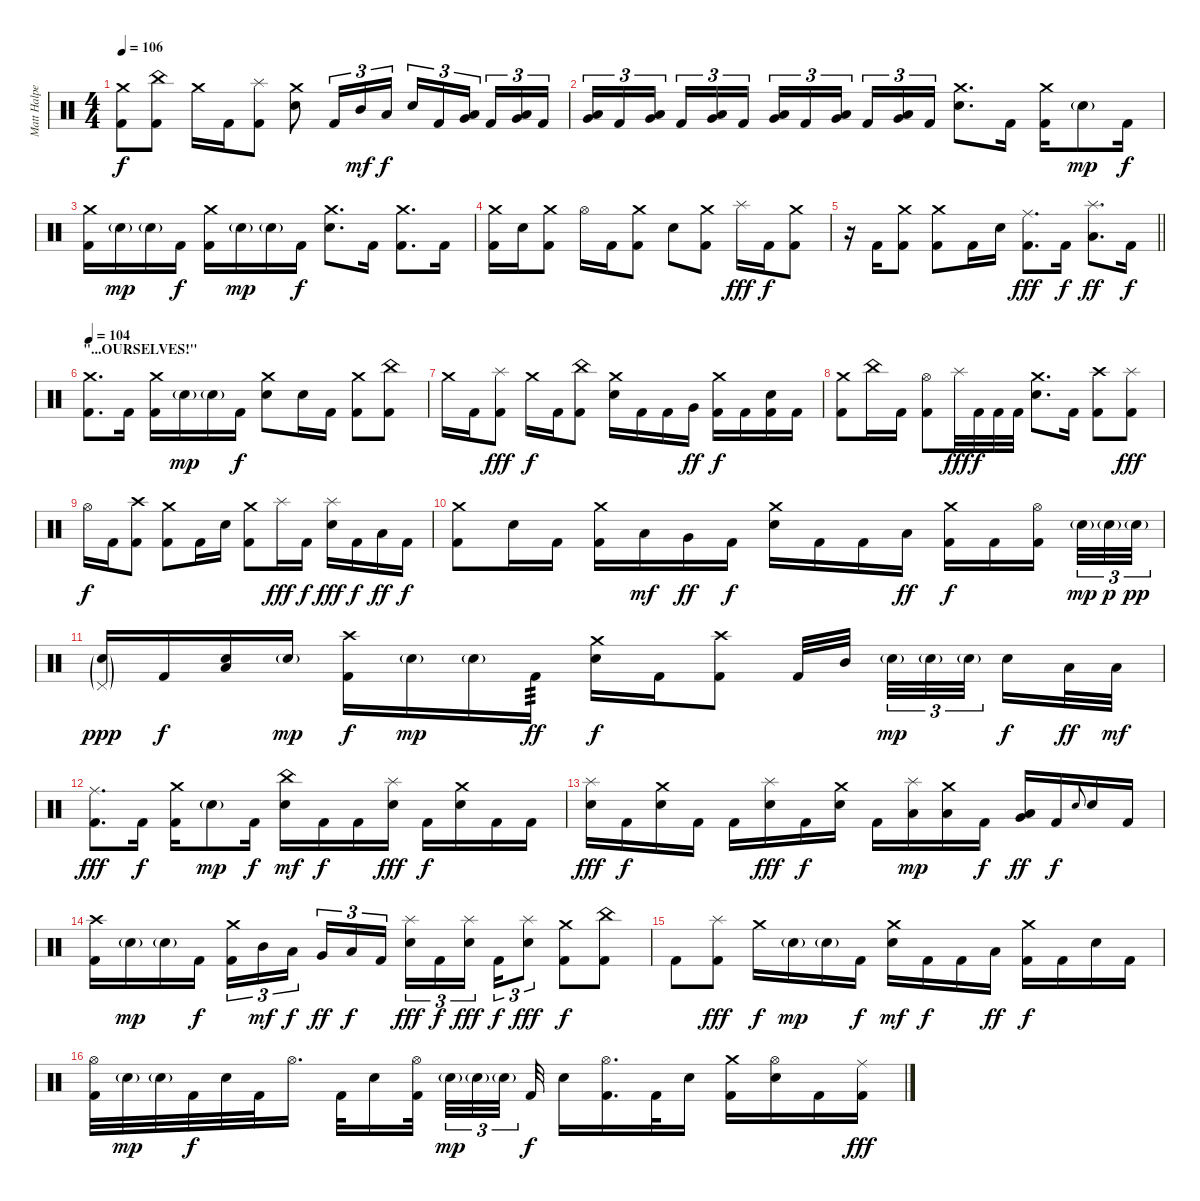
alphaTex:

\track ("Matt Halpern - Drums" "Matt Halpe") {instrument percussion}
\staff {score}
\articulation defaults
\ts (4 4)
\tempo 106
\clef neutral
\ks c
("Crash medium (hit)" "Kick (hit) 2").8{dy f} ("China (hit)" "Kick (hit) 2").8 "Crash medium (hit)".16 "Kick (hit) 2".16 ("Splash (hit)" "Kick (hit) 2").8 ("Crash medium (hit)" "Electric Snare (hit)").8 "Kick (hit) 2".16{tu (3 2)} "Mid Tom (hit)".16{tu (3 2) dy mf} "Low Tom (hit)".16{tu (3 2) dy f} "Electric Snare (hit)".16{tu (3 2)} "Kick (hit) 2".16{tu (3 2)} ("Low Tom (hit)" "Very Low Tom (hit)").16{tu (3 2) beam splitsecondary} "Kick (hit) 2".16{tu (3 2)} ("Low Tom (hit)" "Very Low Tom (hit)").16{tu (3 2)} "Kick (hit) 2".16{tu (3 2)} |
("Low Tom (hit)" "Very Low Tom (hit)").16{tu (3 2)} "Kick (hit) 2".16{tu (3 2)} ("Low Tom (hit)" "Very Low Tom (hit)").16{tu (3 2) beam splitsecondary} "Kick (hit) 2".16{tu (3 2)} ("Low Tom (hit)" "Very Low Tom (hit)").16{tu (3 2)} "Kick (hit) 2".16{tu (3 2)} ("Low Tom (hit)" "Very Low Tom (hit)").16{tu (3 2)} "Kick (hit) 2".16{tu (3 2)} ("Low Tom (hit)" "Very Low Tom (hit)").16{tu (3 2) beam splitsecondary} "Kick (hit) 2".16{tu (3 2)} ("Low Tom (hit)" "Very Low Tom (hit)").16{tu (3 2)} "Kick (hit) 2".16{tu (3 2)} ("Crash medium (hit)" "Electric Snare (hit)").8{d} "Kick (hit) 2".16 ("Crash medium (hit)" "Kick (hit) 2").16 "Electric Snare (hit)"{g}.8{dy mp} "Kick (hit) 2".16{dy f} |
("Crash medium (hit)" "Kick (hit) 2").16 "Electric Snare (hit)"{g}.16{dy mp} "Electric Snare (hit)"{g}.16 "Kick (hit) 2".16{dy f} ("Crash medium (hit)" "Kick (hit) 2").16 "Electric Snare (hit)"{g}.16{dy mp} "Electric Snare (hit)"{g}.16 "Kick (hit) 2".16{dy f} ("Crash medium (hit)" "Electric Snare (hit)").8{d} "Kick (hit) 2".16 ("Crash medium (hit)" "Kick (hit) 2").8{d} "Kick (hit) 2".16 |
("Crash medium (hit)" "Kick (hit) 2").16 "Electric Snare (hit)".16 ("Crash medium (hit)" "Kick (hit) 2").8 "Hi-Hat (open)".16 "Kick (hit) 2".16 ("Crash medium (hit)" "Kick (hit) 2").8 "Electric Snare (hit)".8 ("Crash medium (hit)" "Kick (hit) 2").8 "Splash (hit)".16{dy fff} "Kick (hit) 2".16{dy f} ("Crash medium (hit)" "Kick (hit) 2").8 |
\barLineRight lightlight
r.16 "Kick (hit) 2".16 ("Crash medium (hit)" "Kick (hit) 2").8 ("Crash medium (hit)" "Kick (hit) 2").8 "Kick (hit) 2".16 "Electric Snare (hit)".16 ("Ride (middle)" "Kick (hit) 2").8{d dy fff} "Kick (hit) 2".16{dy f} ("Splash (hit)" "Low Tom (hit)").8{d dy ff} "Kick (hit) 2".16{dy f} |
\section ("" "\"...OURSELVES!\"")
\tempo 104
("Crash medium (hit)" "Kick (hit) 2").8{d} "Kick (hit) 2".16 ("Crash medium (hit)" "Kick (hit) 2").16 "Electric Snare (hit)"{g}.16{dy mp} "Electric Snare (hit)"{g}.16 "Kick (hit) 2".16{dy f} ("Crash medium (hit)" "Electric Snare (hit)").8 "Electric Snare (hit)".16 "Kick (hit) 2".16 ("Crash medium (hit)" "Kick (hit) 2").8 ("China (hit)" "Kick (hit) 2").8 |
"Crash medium (hit)".16 "Kick (hit) 2".16 ("Splash (hit)" "Kick (hit) 2").8{dy fff} "Crash medium (hit)".16{dy f} "Kick (hit) 2".16 ("China (hit)" "Kick (hit) 2").8 ("Crash medium (hit)" "Electric Snare (hit)").16 "Kick (hit) 2".16 "Kick (hit) 2".16 "Very Low Tom (hit)".16{dy ff} ("Crash medium (hit)" "Kick (hit) 2").16{dy f} "Kick (hit) 2".16 ("Electric Snare (hit)" "Kick (hit) 2").16{bd 480} "Kick (hit) 2".16 |
("Crash medium (hit)" "Kick (hit) 2").8 "China (hit)".16 "Kick (hit) 2".16 ("Hi-Hat (open)" "Kick (hit) 2").8 "Splash (hit)".32{dy fff} "Kick (hit) 2".32{dy f} "Kick (hit) 2".32 "Kick (hit) 2".32 ("Crash medium (hit)" "Electric Snare (hit)").8{d} "Kick (hit) 2".16 ("Crash high (hit)" "Kick (hit) 2").8 ("Splash (hit)" "Kick (hit) 2").8{dy fff} |
"Hi-Hat (open)".16{dy f} "Kick (hit) 2".16 ("Crash high (hit)" "Kick (hit) 2").8 ("Crash medium (hit)" "Kick (hit) 2").8 "Kick (hit) 2".16 "Electric Snare (hit)".16 ("Crash medium (hit)" "Kick (hit) 2").8 "Splash (hit)".16{dy fff} "Kick (hit) 2".16{dy f} ("Splash (hit)" "Electric Snare (hit)").16{dy fff} "Kick (hit) 2".16{dy f} "Low Floor Tom (hit)".16{dy ff} "Kick (hit) 2".16{dy f} |
("Crash medium (hit)" "Kick (hit) 2").8 "Electric Snare (hit)".16 "Kick (hit) 2".16 ("Crash medium (hit)" "Kick (hit) 2").16 "Low Tom (hit)".16{dy mf} "Very Low Tom (hit)".16{dy ff} "Kick (hit) 2".16{dy f} ("Crash medium (hit)" "Electric Snare (hit)").16 "Kick (hit) 2".16 "Kick (hit) 2".16 "Low Floor Tom (hit)".16{dy ff} ("Crash medium (hit)" "Kick (hit) 2").16{dy f} "Kick (hit) 2".16 ("Hi-Hat (open)" "Kick (hit) 2").16{beam splitsecondary} "Electric Snare (hit)"{g}.32{tu (3 2) dy mp} "Electric Snare (hit)"{g}.32{tu (3 2) dy p} "Electric Snare (hit)"{g}.32{tu (3 2) dy pp} |
("Electric Snare (hit)"{g} "Pedal Hi-Hat (hit)"{g}).16{dy ppp} "Kick (hit) 2".16{dy f} ("Electric Snare (hit)" "Low Floor Tom (hit)").16 "Electric Snare (hit)"{g}.16{dy mp} ("Crash high (hit)" "Kick (hit) 2").16{dy f} "Electric Snare (hit)"{g}.16{dy mp} "Electric Snare (hit)"{g}.16 "Kick (hit) 2".16{tp 3 dy ff} ("Crash medium (hit)" "Electric Snare (hit)").16{dy f} "Kick (hit) 2".16 ("Crash high (hit)" "Kick (hit) 2").8 "Kick (hit) 2".32 "Mid Tom (hit)".32{beam splitsecondary} "Electric Snare (hit)"{g}.32{tu (3 2) dy mp} "Electric Snare (hit)"{g}.32{tu (3 2)} "Electric Snare (hit)"{g}.32{tu (3 2) beam splitsecondary} "Electric Snare (hit)".16{dy f} "Low Floor Tom (hit)".32{dy ff} "Low Floor Tom (hit)".32{dy mf} |
("Ride (middle)" "Kick (hit) 2").8{d dy fff} "Kick (hit) 2".16{dy f} ("Crash medium (hit)" "Kick (hit) 2").16 "Electric Snare (hit)"{g}.8{dy mp} "Kick (hit) 2".16{dy f} ("China (hit)" "Electric Snare (hit)").16{dy mf} "Kick (hit) 2".16{dy f} "Kick (hit) 2".16 ("Splash (hit)" "Electric Snare (hit)").16{dy fff} "Kick (hit) 2".16{dy f} ("Crash medium (hit)" "Electric Snare (hit)").16 "Kick (hit) 2".16 "Kick (hit) 2".16 |
("Splash (hit)" "Electric Snare (hit)").16{dy fff} "Kick (hit) 2".16{dy f} ("Crash medium (hit)" "Electric Snare (hit)").16 "Kick (hit) 2".16 "Kick (hit) 2".16 ("Splash (hit)" "Electric Snare (hit)").16{dy fff} "Kick (hit) 2".16{dy f} ("Crash medium (hit)" "Electric Snare (hit)").16 "Kick (hit) 2".16 ("Splash (hit)" "Low Tom (hit)").16{dy mp} ("Crash medium (hit)" "Low Tom (hit)").16 "Kick (hit) 2".16{dy f} ("Very Low Tom (hit)" "Low Floor Tom (hit)").16{bd 480 dy ff} "Kick (hit) 2".16{dy f} "Electric Snare (hit)".8{gr onbeat} "Electric Snare (hit)".16 "Kick (hit) 2".16 |
("Crash high (hit)" "Kick (hit) 2").16 "Electric Snare (hit)"{g}.16{dy mp} "Electric Snare (hit)"{g}.16 "Kick (hit) 2".16{dy f} ("Crash medium (hit)" "Kick (hit) 2").16{tu (3 2)} "Mid Tom (hit)".16{tu (3 2) dy mf} "Low Tom (hit)".16{tu (3 2) dy f beam splitsecondary} "Very Low Tom (hit)".16{tu (3 2) dy ff} "Low Floor Tom (hit)".16{tu (3 2) dy f} "Kick (hit) 2".16{tu (3 2)} ("Splash (hit)" "Electric Snare (hit)").16{tu (3 2) dy fff} "Kick (hit) 2".16{tu (3 2) dy f} ("Splash (hit)" "Electric Snare (hit)").16{tu (3 2) dy fff beam splitsecondary} "Kick (hit) 2".16{tu (3 2) dy f} ("Splash (hit)" "Electric Snare (hit)").8{tu (3 2) dy fff} ("Crash medium (hit)" "Kick (hit) 2").8{dy f} ("China (hit)" "Kick (hit) 2").8 |
"Kick (hit) 2".8 ("Splash (hit)" "Kick (hit) 2").8{dy fff} "Crash medium (hit)".16{dy f} "Electric Snare (hit)"{g}.16{dy mp} "Electric Snare (hit)"{g}.16 "Kick (hit) 2".16{dy f} ("Crash medium (hit)" "Electric Snare (hit)").16{dy mf} "Kick (hit) 2".16{dy f} "Kick (hit) 2".16 "Low Tom (hit)".16{dy ff} ("Crash medium (hit)" "Kick (hit) 2").16{dy f} "Kick (hit) 2".16 "Electric Snare (hit)".16 "Kick (hit) 2".16 |
("Hi-Hat (open)" "Kick (hit) 2").32 "Electric Snare (hit)"{g}.32{dy mp} "Electric Snare (hit)"{g}.32 "Kick (hit) 2".32{dy f} "Electric Snare (hit)".32 "Kick (hit) 2".32 "Hi-Hat (open)".16{d} "Kick (hit) 2".32 "Electric Snare (hit)".16 ("Hi-Hat (open)" "Kick (hit) 2").32{beam splitsecondary} "Electric Snare (hit)"{g}.32{tu (3 2) dy mp} "Electric Snare (hit)"{g}.32{tu (3 2)} "Electric Snare (hit)"{g}.32{tu (3 2) beam splitsecondary} "Kick (hit) 2".32{dy f} "Electric Snare (hit)".16 ("Hi-Hat (open)" "Kick (hit) 2").16{d} "Kick (hit) 2".32 "Electric Snare (hit)".16 ("Crash medium (hit)" "Kick (hit) 2").16 ("Hi-Hat (open)" "Electric Snare (hit)").16 "Kick (hit) 2".16 ("Ride (middle)" "Kick (hit) 2").16{dy fff}
